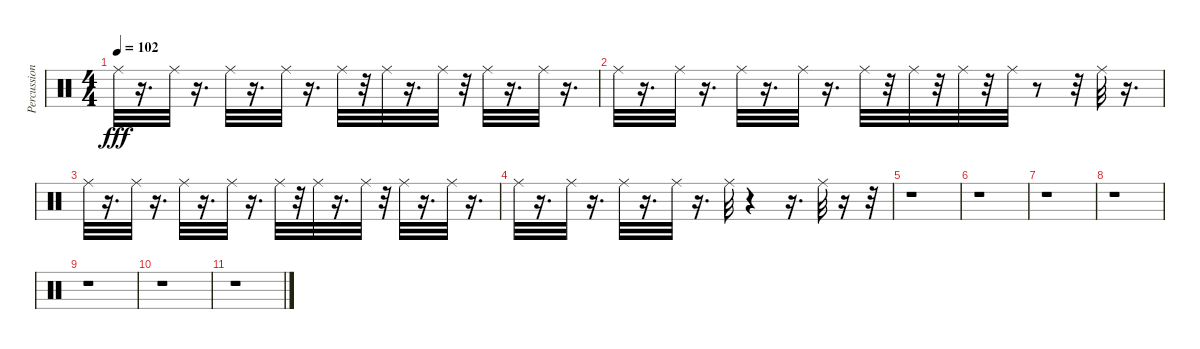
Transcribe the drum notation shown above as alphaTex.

\track ("Percussion" "Percussion") {instrument percussion}
\staff {score}
\articulation defaults
\ts (4 4)
\tempo 102
\clef neutral
\ks c "Ride (middle)".32{dy fff}
r.16{d} "Ride (middle)".32 r.16{d} "Ride (middle)".32 r.16{d} "Ride (middle)".32 r.16{d} "Ride (middle)".32 r.32 "Ride (middle)".32 r.16{d} "Ride (middle)".32 r.32 "Ride (middle)".32 r.16{d} "Ride (middle)".32 r.16{d} |
"Ride (middle)".32 r.16{d} "Ride (middle)".32 r.16{d} "Ride (middle)".32 r.16{d} "Ride (middle)".32 r.16{d} "Ride (middle)".32 r.32 "Ride (middle)".32 r.32 "Ride (middle)".32 r.32 "Ride (middle)".32 r.8 r.32 "Ride (middle)".32 r.16{d} |
"Ride (middle)".32 r.16{d} "Ride (middle)".32 r.16{d} "Ride (middle)".32 r.16{d} "Ride (middle)".32 r.16{d} "Ride (middle)".32 r.32 "Ride (middle)".32 r.16{d} "Ride (middle)".32 r.32 "Ride (middle)".32 r.16{d} "Ride (middle)".32 r.16{d} |
"Ride (middle)".32 r.16{d} "Ride (middle)".32 r.16{d} "Ride (middle)".32 r.16{d} "Ride (middle)".32 r.16{d} "Ride (middle)".32 r.4 r.16{d} "Ride (middle)".32 r.16 r.32 |
r.1 |
r.1 |
r.1 |
r.1 |
r.1 |
r.1 |
r.1
